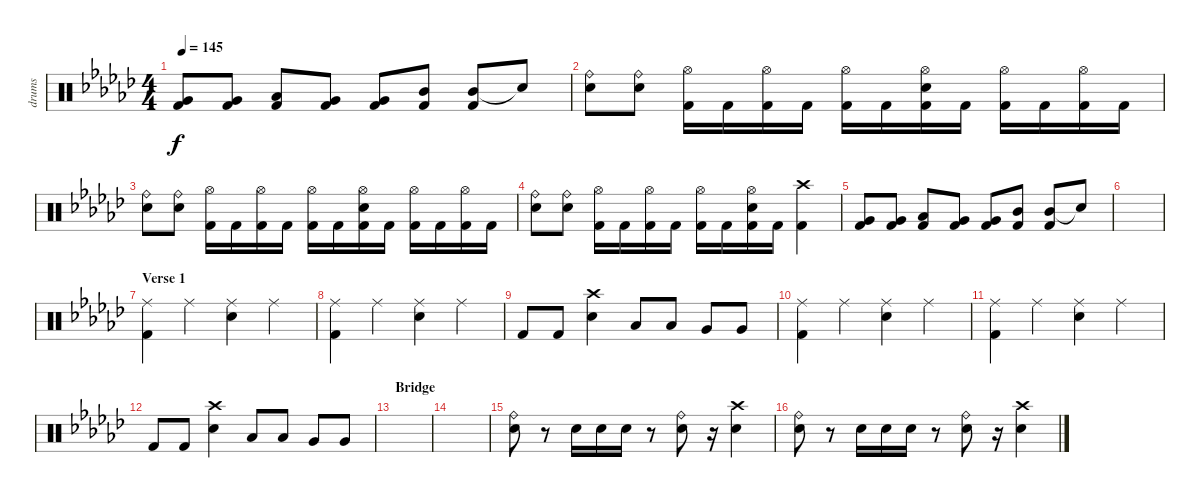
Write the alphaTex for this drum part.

\track ("drums" "drums") {instrument percussion}
\staff {score}
\articulation defaults
\ts (4 4)
\tempo 145
\clef neutral
\ks gb
("Very Low Tom (hit)" "Kick (hit) 2").8{dy f} ("Very Low Tom (hit)" "Kick (hit) 2").8 ("Low Tom (hit)" "Kick (hit) 2").8 ("Very Low Tom (hit)" "Kick (hit) 2").8 ("Very Low Tom (hit)" "Kick (hit) 2").8 ("Mid Tom (hit)" "Kick (hit) 2").8 ("Mid Tom (hit)" "Kick (hit) 2").8 "Snare (hit)"{t}.8 |
("Ride (bell)" "Snare (hit) 2").8 ("Ride (bell)" "Snare (hit) 2").8 ("Hi-Hat (open)" "Kick (hit) 2").16 "Kick (hit) 2".16 ("Hi-Hat (open)" "Kick (hit) 2").16 "Kick (hit) 2".16 ("Hi-Hat (open)" "Kick (hit) 2").16 "Kick (hit) 2".16 ("Hi-Hat (open)" "Snare (hit) 2" "Kick (hit) 2").16 "Kick (hit) 2".16 ("Hi-Hat (open)" "Kick (hit) 2").16 "Kick (hit) 2".16 ("Hi-Hat (open)" "Kick (hit) 2").16 "Kick (hit) 2".16 |
("Ride (bell)" "Snare (hit) 2").8 ("Ride (bell)" "Snare (hit) 2").8 ("Hi-Hat (open)" "Kick (hit) 2").16 "Kick (hit) 2".16 ("Hi-Hat (open)" "Kick (hit) 2").16 "Kick (hit) 2".16 ("Hi-Hat (open)" "Kick (hit) 2").16 "Kick (hit) 2".16 ("Hi-Hat (open)" "Snare (hit) 2" "Kick (hit) 2").16 "Kick (hit) 2".16 ("Hi-Hat (open)" "Kick (hit) 2").16 "Kick (hit) 2".16 ("Hi-Hat (open)" "Kick (hit) 2").16 "Kick (hit) 2".16 |
("Ride (bell)" "Snare (hit) 2").8 ("Ride (bell)" "Snare (hit) 2").8 ("Hi-Hat (open)" "Kick (hit) 2").16 "Kick (hit) 2".16 ("Hi-Hat (open)" "Kick (hit) 2").16 "Kick (hit) 2".16 ("Hi-Hat (open)" "Kick (hit) 2").16 "Kick (hit) 2".16 ("Hi-Hat (open)" "Snare (hit) 2" "Kick (hit) 2").16 "Kick (hit) 2".16 ("Crash high (hit)" "Kick (hit) 2").4 |
("Very Low Tom (hit)" "Kick (hit) 2").8 ("Very Low Tom (hit)" "Kick (hit) 2").8 ("Low Tom (hit)" "Kick (hit) 2").8 ("Very Low Tom (hit)" "Kick (hit) 2").8 ("Very Low Tom (hit)" "Kick (hit) 2").8 ("Mid Tom (hit)" "Kick (hit) 2").8 ("Mid Tom (hit)" "Kick (hit) 2").8 "Snare (hit)"{t}.8 |
|
\section ("" "Verse 1")
("Ride (middle)" "Kick (hit) 2").4 "Ride (middle)".4 ("Ride (middle)" "Electric Snare (hit)").4 "Ride (middle)".4 |
("Ride (middle)" "Kick (hit) 2").4 "Ride (middle)".4 ("Ride (middle)" "Electric Snare (hit)").4 "Ride (middle)".4 |
"Kick (hit) 2".8 "Kick (hit) 2".8 ("Crash high (hit)" "Electric Snare (hit)").4 "Low Tom (hit)".8 "Low Tom (hit)".8 "Very Low Tom (hit)".8 "Very Low Tom (hit)".8 |
("Ride (middle)" "Kick (hit) 2").4 "Ride (middle)".4 ("Ride (middle)" "Electric Snare (hit)").4 "Ride (middle)".4 |
("Ride (middle)" "Kick (hit) 2").4 "Ride (middle)".4 ("Ride (middle)" "Electric Snare (hit)").4 "Ride (middle)".4 |
"Kick (hit) 2".8 "Kick (hit) 2".8 ("Crash high (hit)" "Electric Snare (hit)").4 "Low Tom (hit)".8 "Low Tom (hit)".8 "Very Low Tom (hit)".8 "Very Low Tom (hit)".8 |
\section ("" "Bridge")
|
|
("Ride (bell)" "Snare (hit) 2").8 r.8 "Snare (hit) 2".16 "Snare (hit) 2".16 "Snare (hit) 2".16 r.8 ("Ride (bell)" "Snare (hit) 2").8 r.16 ("Crash high (hit)" "Snare (hit) 2").4 |
("Ride (bell)" "Snare (hit) 2").8 r.8 "Snare (hit) 2".16 "Snare (hit) 2".16 "Snare (hit) 2".16 r.8 ("Ride (bell)" "Snare (hit) 2").8 r.16 ("Crash high (hit)" "Snare (hit) 2").4
